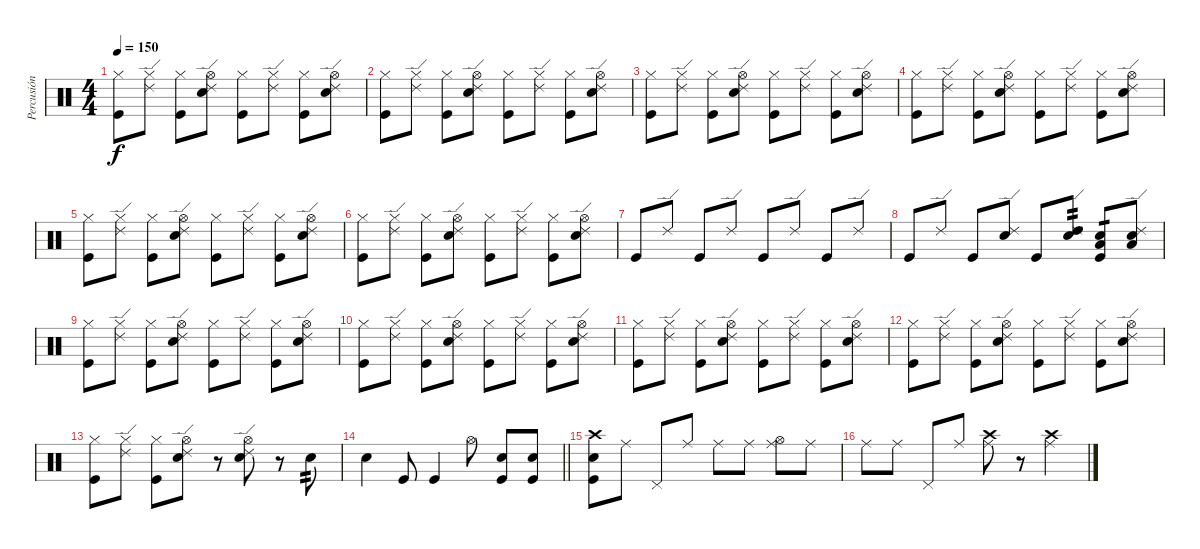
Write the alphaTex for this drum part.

\track ("Percusión" "Percusión") {instrument percussion}
\staff {score}
\articulation defaults
\ts (4 4)
\tempo 150
\clef neutral
\ks c
("Kick (hit)" "Hi-Hat (closed)").8{dy f} ("Ride (edge) 2" "Hi-Hat (closed)").8 ("Kick (hit)" "Hi-Hat (closed)").8 ("Ride (edge) 2" "Snare (hit) 2" "Hi-Hat (open)").8 ("Kick (hit)" "Hi-Hat (closed)").8 ("Ride (edge) 2" "Hi-Hat (closed)").8 ("Kick (hit)" "Hi-Hat (closed)").8 ("Ride (edge) 2" "Snare (hit) 2" "Hi-Hat (open)").8 |
("Kick (hit)" "Hi-Hat (closed)").8 ("Ride (edge) 2" "Hi-Hat (closed)").8 ("Kick (hit)" "Hi-Hat (closed)").8 ("Ride (edge) 2" "Snare (hit) 2" "Hi-Hat (open)").8 ("Kick (hit)" "Hi-Hat (closed)").8 ("Ride (edge) 2" "Hi-Hat (closed)").8 ("Kick (hit)" "Hi-Hat (closed)").8 ("Ride (edge) 2" "Snare (hit) 2" "Hi-Hat (open)").8 |
("Kick (hit)" "Hi-Hat (closed)").8 ("Ride (edge) 2" "Hi-Hat (closed)").8 ("Kick (hit)" "Hi-Hat (closed)").8 ("Ride (edge) 2" "Snare (hit) 2" "Hi-Hat (open)").8 ("Kick (hit)" "Hi-Hat (closed)").8 ("Ride (edge) 2" "Hi-Hat (closed)").8 ("Kick (hit)" "Hi-Hat (closed)").8 ("Ride (edge) 2" "Snare (hit) 2" "Hi-Hat (open)").8 |
("Kick (hit)" "Hi-Hat (closed)").8 ("Ride (edge) 2" "Hi-Hat (closed)").8 ("Kick (hit)" "Hi-Hat (closed)").8 ("Ride (edge) 2" "Snare (hit) 2" "Hi-Hat (open)").8 ("Kick (hit)" "Hi-Hat (closed)").8 ("Ride (edge) 2" "Hi-Hat (closed)").8 ("Kick (hit)" "Hi-Hat (closed)").8 ("Ride (edge) 2" "Snare (hit) 2" "Hi-Hat (open)").8 |
("Kick (hit)" "Hi-Hat (closed)").8 ("Ride (edge) 2" "Hi-Hat (closed)").8 ("Kick (hit)" "Hi-Hat (closed)").8 ("Ride (edge) 2" "Snare (hit) 2" "Hi-Hat (open)").8 ("Kick (hit)" "Hi-Hat (closed)").8 ("Ride (edge) 2" "Hi-Hat (closed)").8 ("Kick (hit)" "Hi-Hat (closed)").8 ("Ride (edge) 2" "Snare (hit) 2" "Hi-Hat (open)").8 |
("Kick (hit)" "Hi-Hat (closed)").8 ("Ride (edge) 2" "Hi-Hat (closed)").8 ("Kick (hit)" "Hi-Hat (closed)").8 ("Ride (edge) 2" "Snare (hit) 2" "Hi-Hat (open)").8 ("Kick (hit)" "Hi-Hat (closed)").8 ("Ride (edge) 2" "Hi-Hat (closed)").8 ("Kick (hit)" "Hi-Hat (closed)").8 ("Ride (edge) 2" "Snare (hit) 2" "Hi-Hat (open)").8 |
"Kick (hit)".8 "Ride (edge) 2".8 "Kick (hit)".8 "Ride (edge) 2".8 "Kick (hit)".8 "Ride (edge) 2".8 "Kick (hit)".8 "Ride (edge) 2".8 |
"Kick (hit)".8 "Ride (edge) 2".8 "Kick (hit)".8 ("Ride (edge) 2" "Snare (hit) 2").8 "Kick (hit)".8 ("Ride (edge) 2" "High Tom (hit)" "Snare (hit) 2").8{tp 2} ("Low Tom (hit)" "Kick (hit)" "Snare (hit) 2").8{tp 1} ("Ride (edge) 2" "Low Floor Tom (hit)" "Snare (hit) 2").8 |
("Kick (hit)" "Hi-Hat (closed)").8 ("Ride (edge) 2" "Hi-Hat (closed)").8 ("Kick (hit)" "Hi-Hat (closed)").8 ("Ride (edge) 2" "Snare (hit) 2" "Hi-Hat (open)").8 ("Kick (hit)" "Hi-Hat (closed)").8 ("Ride (edge) 2" "Hi-Hat (closed)").8 ("Kick (hit)" "Hi-Hat (closed)").8 ("Ride (edge) 2" "Snare (hit) 2" "Hi-Hat (open)").8 |
("Kick (hit)" "Hi-Hat (closed)").8 ("Ride (edge) 2" "Hi-Hat (closed)").8 ("Kick (hit)" "Hi-Hat (closed)").8 ("Ride (edge) 2" "Snare (hit) 2" "Hi-Hat (open)").8 ("Kick (hit)" "Hi-Hat (closed)").8 ("Ride (edge) 2" "Hi-Hat (closed)").8 ("Kick (hit)" "Hi-Hat (closed)").8 ("Ride (edge) 2" "Snare (hit) 2" "Hi-Hat (open)").8 |
("Kick (hit)" "Hi-Hat (closed)").8 ("Ride (edge) 2" "Hi-Hat (closed)").8 ("Kick (hit)" "Hi-Hat (closed)").8 ("Ride (edge) 2" "Snare (hit) 2" "Hi-Hat (open)").8 ("Kick (hit)" "Hi-Hat (closed)").8 ("Ride (edge) 2" "Hi-Hat (closed)").8 ("Kick (hit)" "Hi-Hat (closed)").8 ("Ride (edge) 2" "Snare (hit) 2" "Hi-Hat (open)").8 |
("Kick (hit)" "Hi-Hat (closed)").8 ("Ride (edge) 2" "Hi-Hat (closed)").8 ("Kick (hit)" "Hi-Hat (closed)").8 ("Ride (edge) 2" "Snare (hit) 2" "Hi-Hat (open)").8 ("Kick (hit)" "Hi-Hat (closed)").8 ("Ride (edge) 2" "Hi-Hat (closed)").8 ("Kick (hit)" "Hi-Hat (closed)").8 ("Ride (edge) 2" "Snare (hit) 2" "Hi-Hat (open)").8 |
("Kick (hit)" "Hi-Hat (closed)").8 ("Ride (edge) 2" "Hi-Hat (closed)").8 ("Kick (hit)" "Hi-Hat (closed)").8 ("Ride (edge) 2" "Snare (hit) 2" "Hi-Hat (open)").8 r.8 ("Ride (edge) 2" "Snare (hit) 2" "Hi-Hat (open)").8 r.8 "Snare (hit) 2".8{tp 2} |
\barLineRight lightlight "Snare (hit) 2".4 "Kick (hit)".8 "Kick (hit)".4 "Hi-Hat (open)".8
("Kick (hit)" "Snare (hit) 2").8 ("Kick (hit)" "Snare (hit) 2").8 |
("Crash high (hit)" "Kick (hit)" "Snare (hit) 2").8 "Ride (middle)".8 "Pedal Hi-Hat (hit)".8 "Ride (middle)".8 "Ride (middle)".8 "Ride (middle)".8 ("Hi-Hat (open)" "Ride (middle)").8 "Ride (middle)".8 |
"Ride (middle)".8 "Ride (middle)".8 "Pedal Hi-Hat (hit)".8 "Ride (middle)".8 ("Crash high (hit)" "Ride (middle)").8 r.8 ("Crash high (hit)" "Ride (middle)").4
